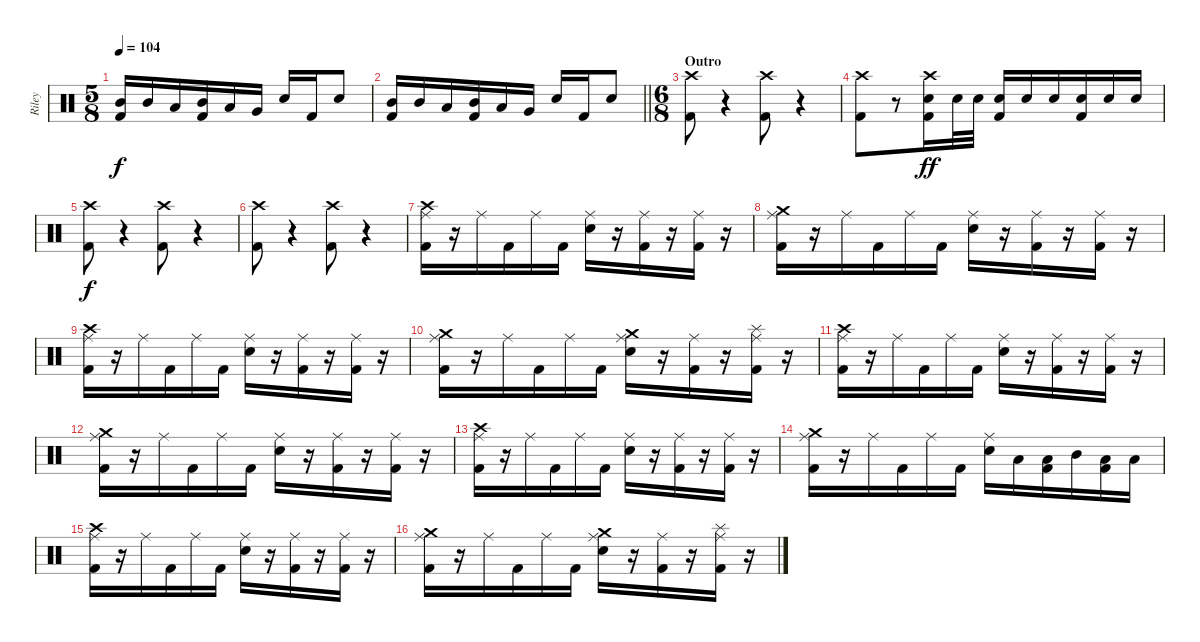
\track ("Riley" "Riley") {instrument percussion}
\staff {score}
\articulation defaults
\ts (5 8)
\tempo 104
\clef neutral
\ks c
("Mid Tom (hit)" "Kick (hit) 2").16{dy f} "Mid Tom (hit)".16 "Low Tom (hit)".16 ("Mid Tom (hit)" "Kick (hit) 2").16 "Low Tom (hit)".16 "Very Low Tom (hit)".16 "Electric Snare (hit)".16 "Kick (hit) 2".16 "Electric Snare (hit)".8 |
\barLineRight lightlight
("Mid Tom (hit)" "Kick (hit) 2").16 "Mid Tom (hit)".16 "Low Tom (hit)".16 ("Mid Tom (hit)" "Kick (hit) 2").16 "Low Tom (hit)".16 "Very Low Tom (hit)".16 "Electric Snare (hit)".16 "Kick (hit) 2".16 "Electric Snare (hit)".8 |
\ts (6 8)
\section ("" "Outro")
("Crash high (hit)" "Kick (hit) 2").8{volume 12} r.4{volume 0} ("Crash high (hit)" "Kick (hit) 2").8{volume 12} r.4{volume 0} |
("Crash high (hit)" "Kick (hit) 2").8{volume 12} r.8{volume 0} ("Crash high (hit)" "Electric Snare (hit)" "Kick (hit) 2").16{dy ff volume 12} "Electric Snare (hit)".32 "Electric Snare (hit)".32 ("Electric Snare (hit)" "Kick (hit) 2").16 "Electric Snare (hit)".16 "Electric Snare (hit)".16 ("Electric Snare (hit)" "Kick (hit) 2").16 "Electric Snare (hit)".16 "Electric Snare (hit)".16 |
("Crash high (hit)" "Kick (hit) 2").8{dy f volume 12} r.4{volume 0} ("Crash high (hit)" "Kick (hit) 2").8{volume 12} r.4{volume 0} |
("Crash high (hit)" "Kick (hit) 2").8{volume 12} r.4{volume 0} ("Crash high (hit)" "Kick (hit) 2").8{volume 12} r.4{volume 0} |
("Crash high (hit)" "Ride (middle)" "Kick (hit) 2").16{volume 12} r.16 "Ride (middle)".16 "Kick (hit) 2".16 "Ride (middle)".16 "Kick (hit) 2".16 ("Ride (middle)" "Electric Snare (hit)").16 r.16 ("Ride (middle)" "Kick (hit) 2").16 r.16 ("Ride (middle)" "Kick (hit) 2").16 r.16 |
("Crash medium (hit)" "Ride (middle)" "Kick (hit) 2").16 r.16 "Ride (middle)".16 "Kick (hit) 2".16 "Ride (middle)".16 "Kick (hit) 2".16 ("Ride (middle)" "Electric Snare (hit)").16 r.16 ("Ride (middle)" "Kick (hit) 2").16 r.16 ("Ride (middle)" "Kick (hit) 2").16 r.16 |
("Crash high (hit)" "Ride (middle)" "Kick (hit) 2").16 r.16 "Ride (middle)".16 "Kick (hit) 2".16 "Ride (middle)".16 "Kick (hit) 2".16 ("Ride (middle)" "Electric Snare (hit)").16 r.16 ("Ride (middle)" "Kick (hit) 2").16 r.16 ("Ride (middle)" "Kick (hit) 2").16 r.16 |
("Crash medium (hit)" "Ride (middle)" "Kick (hit) 2").16 r.16 "Ride (middle)".16 "Kick (hit) 2".16 "Ride (middle)".16 "Kick (hit) 2".16 ("Crash medium (hit)" "Ride (middle)" "Electric Snare (hit)").16 r.16 ("Ride (middle)" "Kick (hit) 2").16 r.16 ("Splash (hit)" "Ride (middle)" "Kick (hit) 2").16 r.16 |
("Crash high (hit)" "Ride (middle)" "Kick (hit) 2").16 r.16 "Ride (middle)".16 "Kick (hit) 2".16 "Ride (middle)".16 "Kick (hit) 2".16 ("Ride (middle)" "Electric Snare (hit)").16 r.16 ("Ride (middle)" "Kick (hit) 2").16 r.16 ("Ride (middle)" "Kick (hit) 2").16 r.16 |
("Crash medium (hit)" "Ride (middle)" "Kick (hit) 2").16 r.16 "Ride (middle)".16 "Kick (hit) 2".16 "Ride (middle)".16 "Kick (hit) 2".16 ("Ride (middle)" "Electric Snare (hit)").16 r.16 ("Ride (middle)" "Kick (hit) 2").16 r.16 ("Ride (middle)" "Kick (hit) 2").16 r.16 |
("Crash high (hit)" "Ride (middle)" "Kick (hit) 2").16 r.16 "Ride (middle)".16 "Kick (hit) 2".16 "Ride (middle)".16 "Kick (hit) 2".16 ("Ride (middle)" "Electric Snare (hit)").16 r.16 ("Ride (middle)" "Kick (hit) 2").16 r.16 ("Ride (middle)" "Kick (hit) 2").16 r.16 |
("Crash medium (hit)" "Ride (middle)" "Kick (hit) 2").16 r.16 "Ride (middle)".16 "Kick (hit) 2".16 "Ride (middle)".16 "Kick (hit) 2".16 ("Ride (middle)" "Electric Snare (hit)").16 "Low Tom (hit)".16 ("Low Tom (hit)" "Kick (hit) 2").16 "Mid Tom (hit)".16 ("Low Tom (hit)" "Kick (hit) 2").16 "Low Tom (hit)".16 |
("Crash high (hit)" "Ride (middle)" "Kick (hit) 2").16{volume 12} r.16 "Ride (middle)".16 "Kick (hit) 2".16 "Ride (middle)".16 "Kick (hit) 2".16 ("Ride (middle)" "Electric Snare (hit)").16 r.16 ("Ride (middle)" "Kick (hit) 2").16 r.16 ("Ride (middle)" "Kick (hit) 2").16 r.16 |
("Crash medium (hit)" "Ride (middle)" "Kick (hit) 2").16 r.16 "Ride (middle)".16 "Kick (hit) 2".16 "Ride (middle)".16 "Kick (hit) 2".16 ("Crash medium (hit)" "Ride (middle)" "Electric Snare (hit)").16 r.16 ("Ride (middle)" "Kick (hit) 2").16 r.16 ("Splash (hit)" "Ride (middle)" "Kick (hit) 2").16 r.16
